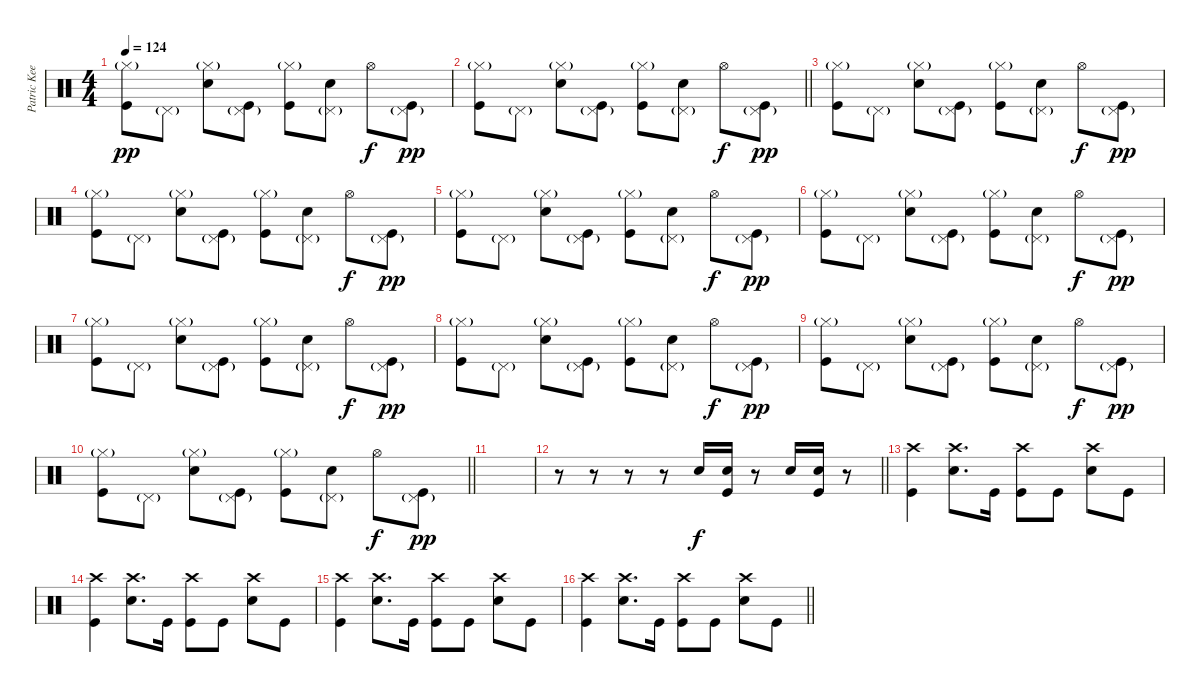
\track ("Patric Keeler (Drums)" "Patric Kee") {instrument percussion}
\staff {score}
\articulation defaults
\ts (4 4)
\tempo 124
\clef neutral
\ks c
("Hi-Hat (closed)"{g} "Kick (hit)").8{dy pp} "Pedal Hi-Hat (hit)"{g}.8 ("Hi-Hat (closed)"{g} "Snare (hit) 2").8 ("Pedal Hi-Hat (hit)"{g} "Kick (hit)").8 ("Hi-Hat (closed)"{g} "Kick (hit)").8 ("Pedal Hi-Hat (hit)"{g} "Snare (hit) 2").8 "Hi-Hat (open)".8{dy f} ("Pedal Hi-Hat (hit)"{g} "Kick (hit)").8{dy pp} |
\barLineRight lightlight
("Hi-Hat (closed)"{g} "Kick (hit)").8 "Pedal Hi-Hat (hit)"{g}.8 ("Hi-Hat (closed)"{g} "Snare (hit) 2").8 ("Pedal Hi-Hat (hit)"{g} "Kick (hit)").8 ("Hi-Hat (closed)"{g} "Kick (hit)").8 ("Pedal Hi-Hat (hit)"{g} "Snare (hit) 2").8 "Hi-Hat (open)".8{dy f} ("Pedal Hi-Hat (hit)"{g} "Kick (hit)").8{dy pp} |
("Hi-Hat (closed)"{g} "Kick (hit)").8 "Pedal Hi-Hat (hit)"{g}.8 ("Hi-Hat (closed)"{g} "Snare (hit) 2").8 ("Pedal Hi-Hat (hit)"{g} "Kick (hit)").8 ("Hi-Hat (closed)"{g} "Kick (hit)").8 ("Pedal Hi-Hat (hit)"{g} "Snare (hit) 2").8 "Hi-Hat (open)".8{dy f} ("Pedal Hi-Hat (hit)"{g} "Kick (hit)").8{dy pp} |
("Hi-Hat (closed)"{g} "Kick (hit)").8 "Pedal Hi-Hat (hit)"{g}.8 ("Hi-Hat (closed)"{g} "Snare (hit) 2").8 ("Pedal Hi-Hat (hit)"{g} "Kick (hit)").8 ("Hi-Hat (closed)"{g} "Kick (hit)").8 ("Pedal Hi-Hat (hit)"{g} "Snare (hit) 2").8 "Hi-Hat (open)".8{dy f} ("Pedal Hi-Hat (hit)"{g} "Kick (hit)").8{dy pp} |
("Hi-Hat (closed)"{g} "Kick (hit)").8 "Pedal Hi-Hat (hit)"{g}.8 ("Hi-Hat (closed)"{g} "Snare (hit) 2").8 ("Pedal Hi-Hat (hit)"{g} "Kick (hit)").8 ("Hi-Hat (closed)"{g} "Kick (hit)").8 ("Pedal Hi-Hat (hit)"{g} "Snare (hit) 2").8 "Hi-Hat (open)".8{dy f} ("Pedal Hi-Hat (hit)"{g} "Kick (hit)").8{dy pp} |
("Hi-Hat (closed)"{g} "Kick (hit)").8 "Pedal Hi-Hat (hit)"{g}.8 ("Hi-Hat (closed)"{g} "Snare (hit) 2").8 ("Pedal Hi-Hat (hit)"{g} "Kick (hit)").8 ("Hi-Hat (closed)"{g} "Kick (hit)").8 ("Pedal Hi-Hat (hit)"{g} "Snare (hit) 2").8 "Hi-Hat (open)".8{dy f} ("Pedal Hi-Hat (hit)"{g} "Kick (hit)").8{dy pp} |
("Hi-Hat (closed)"{g} "Kick (hit)").8 "Pedal Hi-Hat (hit)"{g}.8 ("Hi-Hat (closed)"{g} "Snare (hit) 2").8 ("Pedal Hi-Hat (hit)"{g} "Kick (hit)").8 ("Hi-Hat (closed)"{g} "Kick (hit)").8 ("Pedal Hi-Hat (hit)"{g} "Snare (hit) 2").8 "Hi-Hat (open)".8{dy f} ("Pedal Hi-Hat (hit)"{g} "Kick (hit)").8{dy pp} |
("Hi-Hat (closed)"{g} "Kick (hit)").8 "Pedal Hi-Hat (hit)"{g}.8 ("Hi-Hat (closed)"{g} "Snare (hit) 2").8 ("Pedal Hi-Hat (hit)"{g} "Kick (hit)").8 ("Hi-Hat (closed)"{g} "Kick (hit)").8 ("Pedal Hi-Hat (hit)"{g} "Snare (hit) 2").8 "Hi-Hat (open)".8{dy f} ("Pedal Hi-Hat (hit)"{g} "Kick (hit)").8{dy pp} |
("Hi-Hat (closed)"{g} "Kick (hit)").8 "Pedal Hi-Hat (hit)"{g}.8 ("Hi-Hat (closed)"{g} "Snare (hit) 2").8 ("Pedal Hi-Hat (hit)"{g} "Kick (hit)").8 ("Hi-Hat (closed)"{g} "Kick (hit)").8 ("Pedal Hi-Hat (hit)"{g} "Snare (hit) 2").8 "Hi-Hat (open)".8{dy f} ("Pedal Hi-Hat (hit)"{g} "Kick (hit)").8{dy pp} |
\barLineRight lightlight
("Hi-Hat (closed)"{g} "Kick (hit)").8 "Pedal Hi-Hat (hit)"{g}.8 ("Hi-Hat (closed)"{g} "Snare (hit) 2").8 ("Pedal Hi-Hat (hit)"{g} "Kick (hit)").8 ("Hi-Hat (closed)"{g} "Kick (hit)").8 ("Pedal Hi-Hat (hit)"{g} "Snare (hit) 2").8 "Hi-Hat (open)".8{dy f} ("Pedal Hi-Hat (hit)"{g} "Kick (hit)").8{dy pp} |
|
\barLineRight lightlight
r.8 r.8 r.8 r.8 "Snare (hit) 2".16{dy f} ("Snare (hit) 2" "Kick (hit)").16 r.8 "Snare (hit) 2".16 ("Snare (hit) 2" "Kick (hit)").16 r.8 |
("Crash high (hit)" "Kick (hit)").4 ("Crash high (hit)" "Snare (hit) 2").8{d} "Kick (hit)".16 ("Crash high (hit)" "Kick (hit)").8 "Kick (hit)".8 ("Crash high (hit)" "Snare (hit) 2").8 "Kick (hit)".8 |
("Crash high (hit)" "Kick (hit)").4 ("Crash high (hit)" "Snare (hit) 2").8{d} "Kick (hit)".16 ("Crash high (hit)" "Kick (hit)").8 "Kick (hit)".8 ("Crash high (hit)" "Snare (hit) 2").8 "Kick (hit)".8 |
("Crash high (hit)" "Kick (hit)").4 ("Crash high (hit)" "Snare (hit) 2").8{d} "Kick (hit)".16 ("Crash high (hit)" "Kick (hit)").8 "Kick (hit)".8 ("Crash high (hit)" "Snare (hit) 2").8 "Kick (hit)".8 |
\barLineRight lightlight
("Crash high (hit)" "Kick (hit)").4 ("Crash high (hit)" "Snare (hit) 2").8{d} "Kick (hit)".16 ("Crash high (hit)" "Kick (hit)").8 "Kick (hit)".8 ("Crash high (hit)" "Snare (hit) 2").8 "Kick (hit)".8
